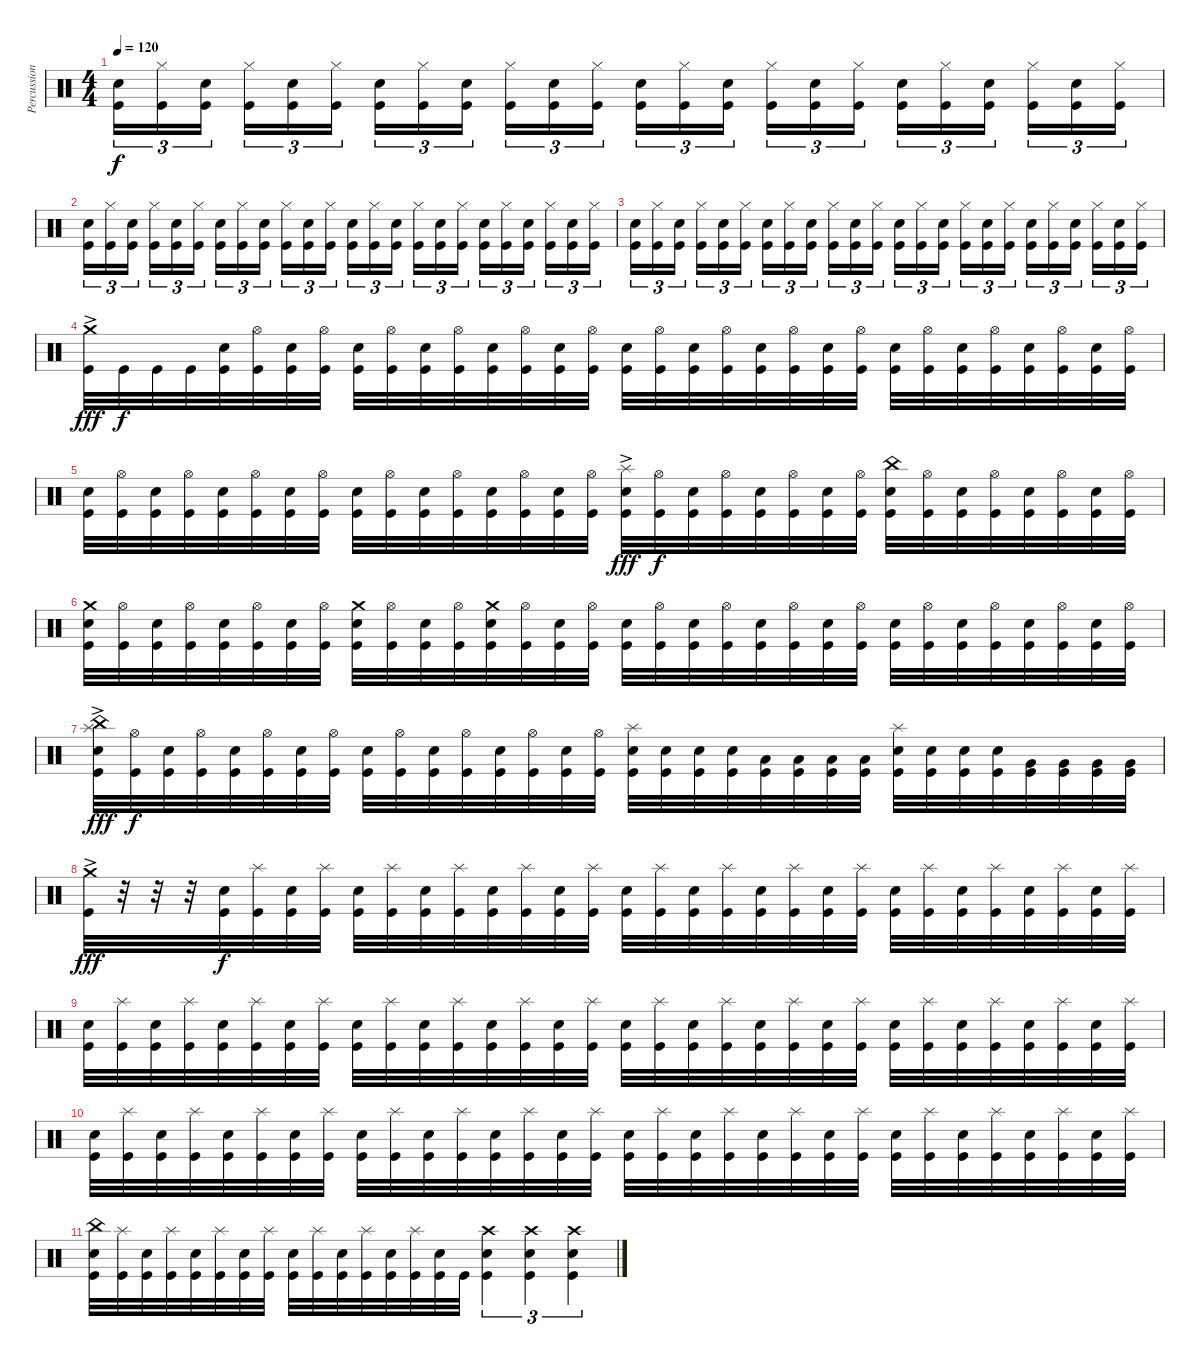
\track ("Percussion" "Percussion") {instrument percussion}
\staff {score}
\articulation defaults
\ts (4 4)
\tempo 120
\clef neutral
\ks c
("Electric Snare (hit)" "Kick (hit)").16{tu (3 2) dy f} ("Hi-Hat (closed)" "Kick (hit)").16{tu (3 2)} ("Electric Snare (hit)" "Kick (hit)").16{tu (3 2)} ("Hi-Hat (closed)" "Kick (hit)").16{tu (3 2)} ("Electric Snare (hit)" "Kick (hit)").16{tu (3 2)} ("Hi-Hat (closed)" "Kick (hit)").16{tu (3 2)} ("Electric Snare (hit)" "Kick (hit)").16{tu (3 2)} ("Hi-Hat (closed)" "Kick (hit)").16{tu (3 2)} ("Electric Snare (hit)" "Kick (hit)").16{tu (3 2)} ("Hi-Hat (closed)" "Kick (hit)").16{tu (3 2)} ("Electric Snare (hit)" "Kick (hit)").16{tu (3 2)} ("Hi-Hat (closed)" "Kick (hit)").16{tu (3 2)} ("Electric Snare (hit)" "Kick (hit)").16{tu (3 2)} ("Hi-Hat (closed)" "Kick (hit)").16{tu (3 2)} ("Electric Snare (hit)" "Kick (hit)").16{tu (3 2)} ("Hi-Hat (closed)" "Kick (hit)").16{tu (3 2)} ("Electric Snare (hit)" "Kick (hit)").16{tu (3 2)} ("Hi-Hat (closed)" "Kick (hit)").16{tu (3 2)} ("Electric Snare (hit)" "Kick (hit)").16{tu (3 2)} ("Hi-Hat (closed)" "Kick (hit)").16{tu (3 2)} ("Electric Snare (hit)" "Kick (hit)").16{tu (3 2)} ("Hi-Hat (closed)" "Kick (hit)").16{tu (3 2)} ("Electric Snare (hit)" "Kick (hit)").16{tu (3 2)} ("Hi-Hat (closed)" "Kick (hit)").16{tu (3 2)} |
("Electric Snare (hit)" "Kick (hit)").16{tu (3 2)} ("Hi-Hat (closed)" "Kick (hit)").16{tu (3 2)} ("Electric Snare (hit)" "Kick (hit)").16{tu (3 2)} ("Hi-Hat (closed)" "Kick (hit)").16{tu (3 2)} ("Electric Snare (hit)" "Kick (hit)").16{tu (3 2)} ("Hi-Hat (closed)" "Kick (hit)").16{tu (3 2)} ("Electric Snare (hit)" "Kick (hit)").16{tu (3 2)} ("Hi-Hat (closed)" "Kick (hit)").16{tu (3 2)} ("Electric Snare (hit)" "Kick (hit)").16{tu (3 2)} ("Hi-Hat (closed)" "Kick (hit)").16{tu (3 2)} ("Electric Snare (hit)" "Kick (hit)").16{tu (3 2)} ("Hi-Hat (closed)" "Kick (hit)").16{tu (3 2)} ("Electric Snare (hit)" "Kick (hit)").16{tu (3 2)} ("Hi-Hat (closed)" "Kick (hit)").16{tu (3 2)} ("Electric Snare (hit)" "Kick (hit)").16{tu (3 2)} ("Hi-Hat (closed)" "Kick (hit)").16{tu (3 2)} ("Electric Snare (hit)" "Kick (hit)").16{tu (3 2)} ("Hi-Hat (closed)" "Kick (hit)").16{tu (3 2)} ("Electric Snare (hit)" "Kick (hit)").16{tu (3 2)} ("Hi-Hat (closed)" "Kick (hit)").16{tu (3 2)} ("Electric Snare (hit)" "Kick (hit)").16{tu (3 2)} ("Hi-Hat (closed)" "Kick (hit)").16{tu (3 2)} ("Electric Snare (hit)" "Kick (hit)").16{tu (3 2)} ("Hi-Hat (closed)" "Kick (hit)").16{tu (3 2)} |
("Electric Snare (hit)" "Kick (hit)").16{tu (3 2)} ("Hi-Hat (closed)" "Kick (hit)").16{tu (3 2)} ("Electric Snare (hit)" "Kick (hit)").16{tu (3 2)} ("Hi-Hat (closed)" "Kick (hit)").16{tu (3 2)} ("Electric Snare (hit)" "Kick (hit)").16{tu (3 2)} ("Hi-Hat (closed)" "Kick (hit)").16{tu (3 2)} ("Electric Snare (hit)" "Kick (hit)").16{tu (3 2)} ("Hi-Hat (closed)" "Kick (hit)").16{tu (3 2)} ("Electric Snare (hit)" "Kick (hit)").16{tu (3 2)} ("Hi-Hat (closed)" "Kick (hit)").16{tu (3 2)} ("Electric Snare (hit)" "Kick (hit)").16{tu (3 2)} ("Hi-Hat (closed)" "Kick (hit)").16{tu (3 2)} ("Electric Snare (hit)" "Kick (hit)").16{tu (3 2)} ("Hi-Hat (closed)" "Kick (hit)").16{tu (3 2)} ("Electric Snare (hit)" "Kick (hit)").16{tu (3 2)} ("Hi-Hat (closed)" "Kick (hit)").16{tu (3 2)} ("Electric Snare (hit)" "Kick (hit)").16{tu (3 2)} ("Hi-Hat (closed)" "Kick (hit)").16{tu (3 2)} ("Electric Snare (hit)" "Kick (hit)").16{tu (3 2)} ("Hi-Hat (closed)" "Kick (hit)").16{tu (3 2)} ("Electric Snare (hit)" "Kick (hit)").16{tu (3 2)} ("Hi-Hat (closed)" "Kick (hit)").16{tu (3 2)} ("Electric Snare (hit)" "Kick (hit)").16{tu (3 2)} ("Hi-Hat (closed)" "Kick (hit)").16{tu (3 2)} |
("Crash medium (hit)"{ac} "Kick (hit)").32{dy fff} "Kick (hit)".32{dy f} "Kick (hit)".32 "Kick (hit)".32 ("Electric Snare (hit)" "Kick (hit)").32 ("Hi-Hat (open)" "Kick (hit)").32 ("Electric Snare (hit)" "Kick (hit)").32 ("Hi-Hat (open)" "Kick (hit)").32 ("Electric Snare (hit)" "Kick (hit)").32 ("Hi-Hat (open)" "Kick (hit)").32 ("Electric Snare (hit)" "Kick (hit)").32 ("Hi-Hat (open)" "Kick (hit)").32 ("Electric Snare (hit)" "Kick (hit)").32 ("Hi-Hat (open)" "Kick (hit)").32 ("Electric Snare (hit)" "Kick (hit)").32 ("Hi-Hat (open)" "Kick (hit)").32 ("Electric Snare (hit)" "Kick (hit)").32 ("Hi-Hat (open)" "Kick (hit)").32 ("Electric Snare (hit)" "Kick (hit)").32 ("Hi-Hat (open)" "Kick (hit)").32 ("Electric Snare (hit)" "Kick (hit)").32 ("Hi-Hat (open)" "Kick (hit)").32 ("Electric Snare (hit)" "Kick (hit)").32 ("Hi-Hat (open)" "Kick (hit)").32 ("Electric Snare (hit)" "Kick (hit)").32 ("Hi-Hat (open)" "Kick (hit)").32 ("Electric Snare (hit)" "Kick (hit)").32 ("Hi-Hat (open)" "Kick (hit)").32 ("Electric Snare (hit)" "Kick (hit)").32 ("Hi-Hat (open)" "Kick (hit)").32 ("Electric Snare (hit)" "Kick (hit)").32 ("Hi-Hat (open)" "Kick (hit)").32 |
("Electric Snare (hit)" "Kick (hit)").32 ("Hi-Hat (open)" "Kick (hit)").32 ("Electric Snare (hit)" "Kick (hit)").32 ("Hi-Hat (open)" "Kick (hit)").32 ("Electric Snare (hit)" "Kick (hit)").32 ("Hi-Hat (open)" "Kick (hit)").32 ("Electric Snare (hit)" "Kick (hit)").32 ("Hi-Hat (open)" "Kick (hit)").32 ("Electric Snare (hit)" "Kick (hit)").32 ("Hi-Hat (open)" "Kick (hit)").32 ("Electric Snare (hit)" "Kick (hit)").32 ("Hi-Hat (open)" "Kick (hit)").32 ("Electric Snare (hit)" "Kick (hit)").32 ("Hi-Hat (open)" "Kick (hit)").32 ("Electric Snare (hit)" "Kick (hit)").32 ("Hi-Hat (open)" "Kick (hit)").32 ("Splash (hit)"{ac} "Electric Snare (hit)" "Kick (hit)").32{dy fff} ("Hi-Hat (open)" "Kick (hit)").32{dy f} ("Electric Snare (hit)" "Kick (hit)").32 ("Hi-Hat (open)" "Kick (hit)").32 ("Electric Snare (hit)" "Kick (hit)").32 ("Hi-Hat (open)" "Kick (hit)").32 ("Electric Snare (hit)" "Kick (hit)").32 ("Hi-Hat (open)" "Kick (hit)").32 ("China (hit)" "Electric Snare (hit)" "Kick (hit)").32 ("Hi-Hat (open)" "Kick (hit)").32 ("Electric Snare (hit)" "Kick (hit)").32 ("Hi-Hat (open)" "Kick (hit)").32 ("Electric Snare (hit)" "Kick (hit)").32 ("Hi-Hat (open)" "Kick (hit)").32 ("Electric Snare (hit)" "Kick (hit)").32 ("Hi-Hat (open)" "Kick (hit)").32 |
("Crash medium (hit)" "Electric Snare (hit)" "Kick (hit)").32 ("Hi-Hat (open)" "Kick (hit)").32 ("Electric Snare (hit)" "Kick (hit)").32 ("Hi-Hat (open)" "Kick (hit)").32 ("Electric Snare (hit)" "Kick (hit)").32 ("Hi-Hat (open)" "Kick (hit)").32 ("Electric Snare (hit)" "Kick (hit)").32 ("Hi-Hat (open)" "Kick (hit)").32 ("Crash medium (hit)" "Electric Snare (hit)" "Kick (hit)").32 ("Hi-Hat (open)" "Kick (hit)").32 ("Electric Snare (hit)" "Kick (hit)").32 ("Hi-Hat (open)" "Kick (hit)").32 ("Crash medium (hit)" "Electric Snare (hit)" "Kick (hit)").32 ("Hi-Hat (open)" "Kick (hit)").32 ("Electric Snare (hit)" "Kick (hit)").32 ("Hi-Hat (open)" "Kick (hit)").32 ("Electric Snare (hit)" "Kick (hit)").32 ("Hi-Hat (open)" "Kick (hit)").32 ("Electric Snare (hit)" "Kick (hit)").32 ("Hi-Hat (open)" "Kick (hit)").32 ("Electric Snare (hit)" "Kick (hit)").32 ("Hi-Hat (open)" "Kick (hit)").32 ("Electric Snare (hit)" "Kick (hit)").32 ("Hi-Hat (open)" "Kick (hit)").32 ("Electric Snare (hit)" "Kick (hit)").32 ("Hi-Hat (open)" "Kick (hit)").32 ("Electric Snare (hit)" "Kick (hit)").32 ("Hi-Hat (open)" "Kick (hit)").32 ("Electric Snare (hit)" "Kick (hit)").32 ("Hi-Hat (open)" "Kick (hit)").32 ("Electric Snare (hit)" "Kick (hit)").32 ("Hi-Hat (open)" "Kick (hit)").32 |
("Splash (hit)"{ac} "China (hit)" "Electric Snare (hit)" "Kick (hit)").32{dy fff} ("Hi-Hat (open)" "Kick (hit)").32{dy f} ("Electric Snare (hit)" "Kick (hit)").32 ("Hi-Hat (open)" "Kick (hit)").32 ("Electric Snare (hit)" "Kick (hit)").32 ("Hi-Hat (open)" "Kick (hit)").32 ("Electric Snare (hit)" "Kick (hit)").32 ("Hi-Hat (open)" "Kick (hit)").32 ("Electric Snare (hit)" "Kick (hit)").32 ("Hi-Hat (open)" "Kick (hit)").32 ("Electric Snare (hit)" "Kick (hit)").32 ("Hi-Hat (open)" "Kick (hit)").32 ("Electric Snare (hit)" "Kick (hit)").32 ("Hi-Hat (open)" "Kick (hit)").32 ("Electric Snare (hit)" "Kick (hit)").32 ("Hi-Hat (open)" "Kick (hit)").32 ("Splash (hit)" "Electric Snare (hit)" "Kick (hit)").32 ("Electric Snare (hit)" "Kick (hit)").32 ("Electric Snare (hit)" "Kick (hit)").32 ("Electric Snare (hit)" "Kick (hit)").32 ("Low Tom (hit)" "Kick (hit)").32 ("Low Tom (hit)" "Kick (hit)").32 ("Low Tom (hit)" "Kick (hit)").32 ("Low Tom (hit)" "Kick (hit)").32 ("Splash (hit)" "Electric Snare (hit)" "Kick (hit)").32 ("Electric Snare (hit)" "Kick (hit)").32 ("Electric Snare (hit)" "Kick (hit)").32 ("Electric Snare (hit)" "Kick (hit)").32 ("Very Low Tom (hit)" "Kick (hit)").32 ("Very Low Tom (hit)" "Kick (hit)").32 ("Very Low Tom (hit)" "Kick (hit)").32 ("Very Low Tom (hit)" "Kick (hit)").32 |
("Crash medium (hit)"{ac} "Kick (hit)").32{dy fff} r.32 r.32 r.32 ("Electric Snare (hit)" "Kick (hit)").32{dy f} ("Splash (hit)" "Kick (hit)").32 ("Electric Snare (hit)" "Kick (hit)").32 ("Splash (hit)" "Kick (hit)").32 ("Electric Snare (hit)" "Kick (hit)").32 ("Splash (hit)" "Kick (hit)").32 ("Electric Snare (hit)" "Kick (hit)").32 ("Splash (hit)" "Kick (hit)").32 ("Electric Snare (hit)" "Kick (hit)").32 ("Splash (hit)" "Kick (hit)").32 ("Electric Snare (hit)" "Kick (hit)").32 ("Splash (hit)" "Kick (hit)").32 ("Electric Snare (hit)" "Kick (hit)").32 ("Splash (hit)" "Kick (hit)").32 ("Electric Snare (hit)" "Kick (hit)").32 ("Splash (hit)" "Kick (hit)").32 ("Electric Snare (hit)" "Kick (hit)").32 ("Splash (hit)" "Kick (hit)").32 ("Electric Snare (hit)" "Kick (hit)").32 ("Splash (hit)" "Kick (hit)").32 ("Electric Snare (hit)" "Kick (hit)").32 ("Splash (hit)" "Kick (hit)").32 ("Electric Snare (hit)" "Kick (hit)").32 ("Splash (hit)" "Kick (hit)").32 ("Electric Snare (hit)" "Kick (hit)").32 ("Splash (hit)" "Kick (hit)").32 ("Electric Snare (hit)" "Kick (hit)").32 ("Splash (hit)" "Kick (hit)").32 |
("Electric Snare (hit)" "Kick (hit)").32 ("Splash (hit)" "Kick (hit)").32 ("Electric Snare (hit)" "Kick (hit)").32 ("Splash (hit)" "Kick (hit)").32 ("Electric Snare (hit)" "Kick (hit)").32 ("Splash (hit)" "Kick (hit)").32 ("Electric Snare (hit)" "Kick (hit)").32 ("Splash (hit)" "Kick (hit)").32 ("Electric Snare (hit)" "Kick (hit)").32 ("Splash (hit)" "Kick (hit)").32 ("Electric Snare (hit)" "Kick (hit)").32 ("Splash (hit)" "Kick (hit)").32 ("Electric Snare (hit)" "Kick (hit)").32 ("Splash (hit)" "Kick (hit)").32 ("Electric Snare (hit)" "Kick (hit)").32 ("Splash (hit)" "Kick (hit)").32 ("Electric Snare (hit)" "Kick (hit)").32 ("Splash (hit)" "Kick (hit)").32 ("Electric Snare (hit)" "Kick (hit)").32 ("Splash (hit)" "Kick (hit)").32 ("Electric Snare (hit)" "Kick (hit)").32 ("Splash (hit)" "Kick (hit)").32 ("Electric Snare (hit)" "Kick (hit)").32 ("Splash (hit)" "Kick (hit)").32 ("Electric Snare (hit)" "Kick (hit)").32 ("Splash (hit)" "Kick (hit)").32 ("Electric Snare (hit)" "Kick (hit)").32 ("Splash (hit)" "Kick (hit)").32 ("Electric Snare (hit)" "Kick (hit)").32 ("Splash (hit)" "Kick (hit)").32 ("Electric Snare (hit)" "Kick (hit)").32 ("Splash (hit)" "Kick (hit)").32 |
("Electric Snare (hit)" "Kick (hit)").32 ("Splash (hit)" "Kick (hit)").32 ("Electric Snare (hit)" "Kick (hit)").32 ("Splash (hit)" "Kick (hit)").32 ("Electric Snare (hit)" "Kick (hit)").32 ("Splash (hit)" "Kick (hit)").32 ("Electric Snare (hit)" "Kick (hit)").32 ("Splash (hit)" "Kick (hit)").32 ("Electric Snare (hit)" "Kick (hit)").32 ("Splash (hit)" "Kick (hit)").32 ("Electric Snare (hit)" "Kick (hit)").32 ("Splash (hit)" "Kick (hit)").32 ("Electric Snare (hit)" "Kick (hit)").32 ("Splash (hit)" "Kick (hit)").32 ("Electric Snare (hit)" "Kick (hit)").32 ("Splash (hit)" "Kick (hit)").32 ("Electric Snare (hit)" "Kick (hit)").32 ("Splash (hit)" "Kick (hit)").32 ("Electric Snare (hit)" "Kick (hit)").32 ("Splash (hit)" "Kick (hit)").32 ("Electric Snare (hit)" "Kick (hit)").32 ("Splash (hit)" "Kick (hit)").32 ("Electric Snare (hit)" "Kick (hit)").32 ("Splash (hit)" "Kick (hit)").32 ("Electric Snare (hit)" "Kick (hit)").32 ("Splash (hit)" "Kick (hit)").32 ("Electric Snare (hit)" "Kick (hit)").32 ("Splash (hit)" "Kick (hit)").32 ("Electric Snare (hit)" "Kick (hit)").32 ("Splash (hit)" "Kick (hit)").32 ("Electric Snare (hit)" "Kick (hit)").32 ("Splash (hit)" "Kick (hit)").32 |
("China (hit)" "Electric Snare (hit)" "Kick (hit)").32 ("Splash (hit)" "Kick (hit)").32 ("Electric Snare (hit)" "Kick (hit)").32 ("Splash (hit)" "Kick (hit)").32 ("Electric Snare (hit)" "Kick (hit)").32 ("Splash (hit)" "Kick (hit)").32 ("Electric Snare (hit)" "Kick (hit)").32 ("Splash (hit)" "Kick (hit)").32 ("Electric Snare (hit)" "Kick (hit)").32 ("Splash (hit)" "Kick (hit)").32 ("Electric Snare (hit)" "Kick (hit)").32 ("Splash (hit)" "Kick (hit)").32 ("Electric Snare (hit)" "Kick (hit)").32 ("Splash (hit)" "Kick (hit)").32 ("Electric Snare (hit)" "Kick (hit)").32 "Kick (hit)".32 ("Crash high (hit)" "Electric Snare (hit)" "Kick (hit)").4{tu (3 2)} ("Crash high (hit)" "Electric Snare (hit)" "Kick (hit)").4{tu (3 2)} ("Crash high (hit)" "Electric Snare (hit)" "Kick (hit)").4{tu (3 2)}
